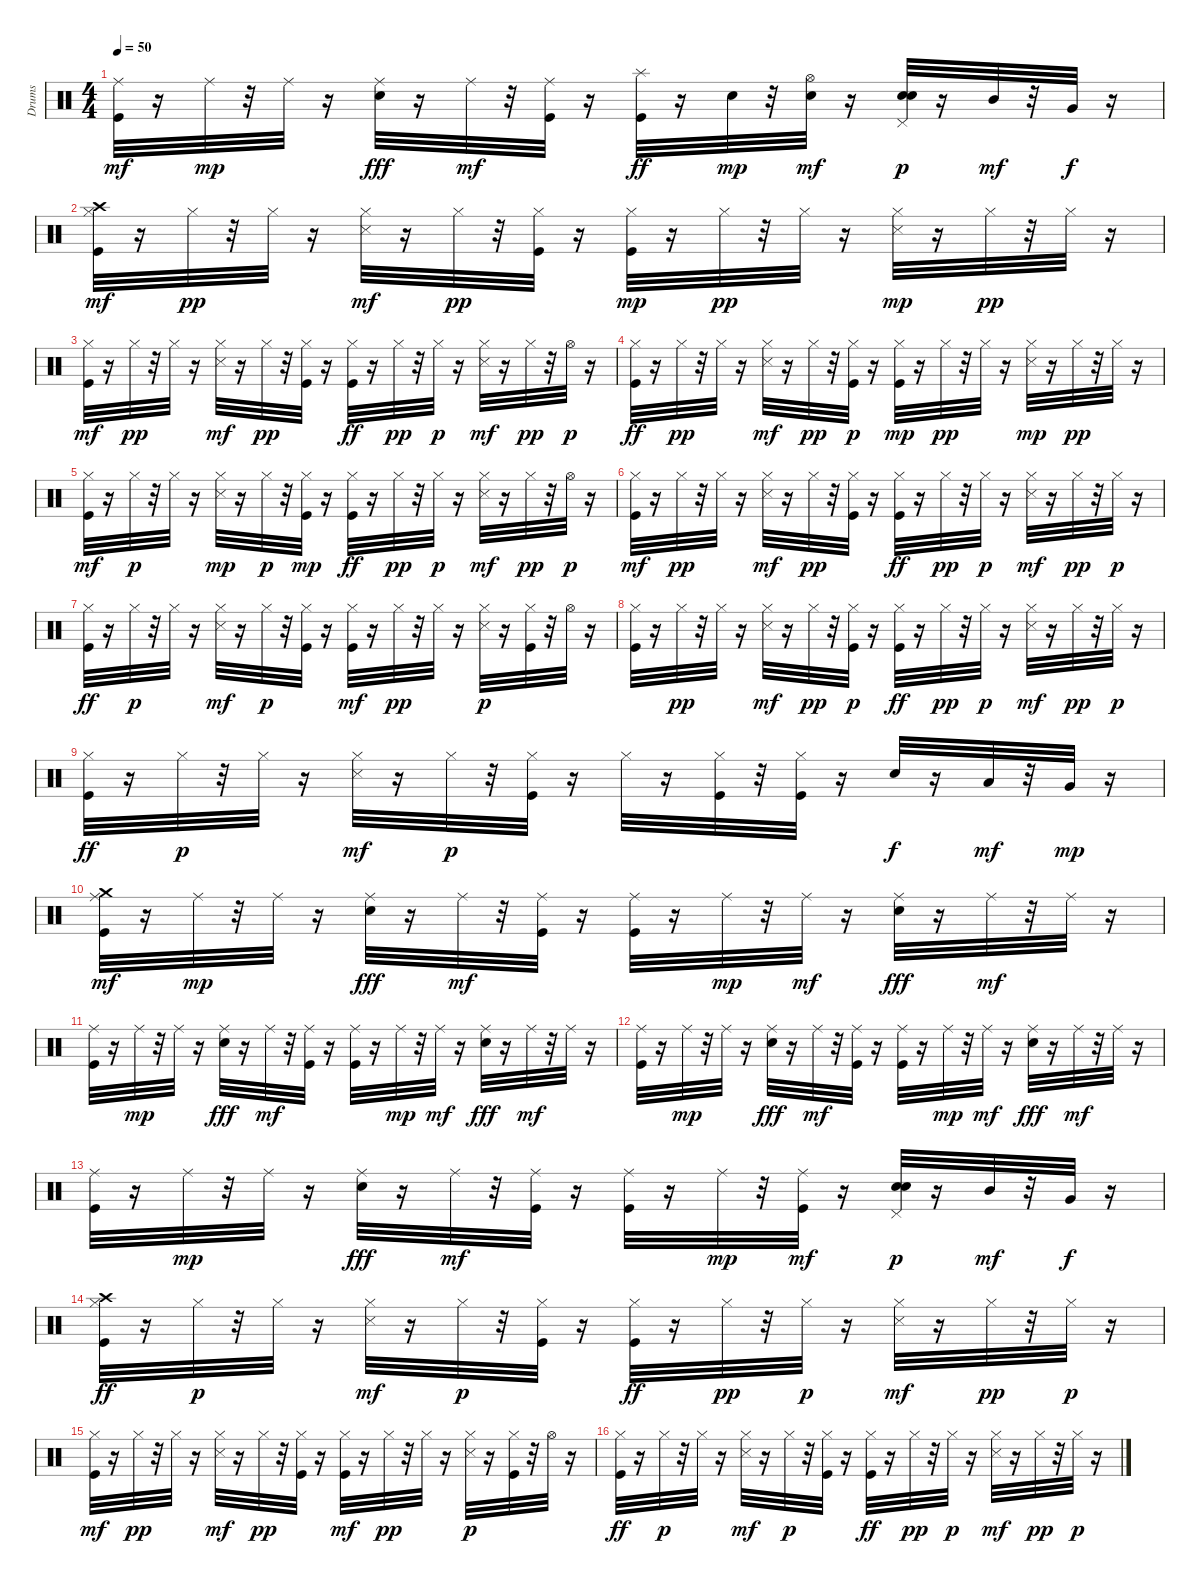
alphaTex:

\track ("Drums" "Drums") {instrument percussion}
\staff {score}
\articulation defaults
\ts (4 4)
\tempo 50
\clef neutral
\ks c
("Kick (hit)" "Ride (middle)").32{dy mf} r.16 "Ride (middle)".32{dy mp} r.32 "Ride (middle)".32 r.16 ("Snare (hit) 2" "Ride (middle)").32{dy fff} r.16 "Ride (middle)".32{dy mf} r.32 ("Kick (hit)" "Ride (middle)").32 r.16 ("Kick (hit)" "Splash (hit)").32{dy ff} r.16 "Snare (hit) 2".32{dy mp} r.32 ("Snare (hit) 2" "Hi-Hat (open)").32{dy mf} r.16 ("Snare (hit) 2" "Snare (hit) 2" "Pedal Hi-Hat (hit)").32{dy p} r.16 "Mid Tom (hit)".32{dy mf} r.32 "Very Low Tom (hit)".32{dy f} r.16 |
("Crash high (hit)" "Kick (hit)" "Hi-Hat (closed)").32{dy mf} r.16 "Hi-Hat (closed)".32{dy pp} r.32 "Hi-Hat (closed)".32 r.16 ("Snare (side stick) 3" "Hi-Hat (closed)").32{dy mf} r.16 "Hi-Hat (closed)".32{dy pp} r.32 ("Kick (hit)" "Hi-Hat (closed)").32 r.16 ("Kick (hit)" "Hi-Hat (closed)").32{dy mp} r.16 "Hi-Hat (closed)".32{dy pp} r.32 "Hi-Hat (closed)".32 r.16 ("Snare (side stick) 3" "Hi-Hat (closed)").32{dy mp} r.16 "Hi-Hat (closed)".32{dy pp} r.32 "Hi-Hat (closed)".32 r.16 |
("Kick (hit)" "Hi-Hat (closed)").32{dy mf} r.16 "Hi-Hat (closed)".32{dy pp} r.32 "Hi-Hat (closed)".32 r.16 ("Snare (side stick) 3" "Hi-Hat (closed)").32{dy mf} r.16 "Hi-Hat (closed)".32{dy pp} r.32 ("Kick (hit)" "Hi-Hat (closed)").32 r.16 ("Kick (hit)" "Hi-Hat (closed)").32{dy ff} r.16 "Hi-Hat (closed)".32{dy pp} r.32 "Hi-Hat (closed)".32{dy p} r.16 ("Snare (side stick) 3" "Hi-Hat (closed)").32{dy mf} r.16 "Hi-Hat (closed)".32{dy pp} r.32 "Hi-Hat (open)".32{dy p} r.16 |
("Kick (hit)" "Hi-Hat (closed)").32{dy ff} r.16 "Hi-Hat (closed)".32{dy pp} r.32 "Hi-Hat (closed)".32 r.16 ("Snare (side stick) 3" "Hi-Hat (closed)").32{dy mf} r.16 "Hi-Hat (closed)".32{dy pp} r.32 ("Kick (hit)" "Hi-Hat (closed)").32{dy p} r.16 ("Kick (hit)" "Hi-Hat (closed)").32{dy mp} r.16 "Hi-Hat (closed)".32{dy pp} r.32 "Hi-Hat (closed)".32 r.16 ("Snare (side stick) 3" "Hi-Hat (closed)").32{dy mp} r.16 "Hi-Hat (closed)".32{dy pp} r.32 "Hi-Hat (closed)".32 r.16 |
("Kick (hit)" "Hi-Hat (closed)").32{dy mf} r.16 "Hi-Hat (closed)".32{dy p} r.32 "Hi-Hat (closed)".32 r.16 ("Snare (side stick) 3" "Hi-Hat (closed)").32{dy mp} r.16 "Hi-Hat (closed)".32{dy p} r.32 ("Kick (hit)" "Hi-Hat (closed)").32{dy mp} r.16 ("Kick (hit)" "Hi-Hat (closed)").32{dy ff} r.16 "Hi-Hat (closed)".32{dy pp} r.32 "Hi-Hat (closed)".32{dy p} r.16 ("Snare (side stick) 3" "Hi-Hat (closed)").32{dy mf} r.16 "Hi-Hat (closed)".32{dy pp} r.32 "Hi-Hat (open)".32{dy p} r.16 |
("Kick (hit)" "Hi-Hat (closed)").32{dy mf} r.16 "Hi-Hat (closed)".32{dy pp} r.32 "Hi-Hat (closed)".32 r.16 ("Snare (side stick) 3" "Hi-Hat (closed)").32{dy mf} r.16 "Hi-Hat (closed)".32{dy pp} r.32 ("Kick (hit)" "Hi-Hat (closed)").32 r.16 ("Kick (hit)" "Hi-Hat (closed)").32{dy ff} r.16 "Hi-Hat (closed)".32{dy pp} r.32 "Hi-Hat (closed)".32{dy p} r.16 ("Snare (side stick) 3" "Hi-Hat (closed)").32{dy mf} r.16 "Hi-Hat (closed)".32{dy pp} r.32 "Hi-Hat (closed)".32{dy p} r.16 |
("Kick (hit)" "Hi-Hat (closed)").32{dy ff} r.16 "Hi-Hat (closed)".32{dy p} r.32 "Hi-Hat (closed)".32 r.16 ("Snare (side stick) 3" "Hi-Hat (closed)").32{dy mf} r.16 "Hi-Hat (closed)".32{dy p} r.32 ("Kick (hit)" "Hi-Hat (closed)").32 r.16 ("Kick (hit)" "Hi-Hat (closed)").32{dy mf} r.16 "Hi-Hat (closed)".32{dy pp} r.32 "Hi-Hat (closed)".32 r.16 ("Snare (side stick) 3" "Hi-Hat (closed)").32{dy p} r.16 ("Kick (hit)" "Hi-Hat (closed)").32 r.32 "Hi-Hat (open)".32 r.16 |
("Kick (hit)" "Hi-Hat (closed)").32 r.16 "Hi-Hat (closed)".32{dy pp} r.32 "Hi-Hat (closed)".32 r.16 ("Snare (side stick) 3" "Hi-Hat (closed)").32{dy mf} r.16 "Hi-Hat (closed)".32{dy pp} r.32 ("Kick (hit)" "Hi-Hat (closed)").32{dy p} r.16 ("Kick (hit)" "Hi-Hat (closed)").32{dy ff} r.16 "Hi-Hat (closed)".32{dy pp} r.32 "Hi-Hat (closed)".32{dy p} r.16 ("Snare (side stick) 3" "Hi-Hat (closed)").32{dy mf} r.16 "Hi-Hat (closed)".32{dy pp} r.32 "Hi-Hat (closed)".32{dy p} r.16 |
("Kick (hit)" "Hi-Hat (closed)").32{dy ff} r.16 "Hi-Hat (closed)".32{dy p} r.32 "Hi-Hat (closed)".32 r.16 ("Snare (side stick) 3" "Hi-Hat (closed)").32{dy mf} r.16 "Hi-Hat (closed)".32{dy p} r.32 ("Kick (hit)" "Hi-Hat (closed)").32 r.16 "Hi-Hat (closed)".32 r.16 ("Kick (hit)" "Hi-Hat (closed)").32 r.32 ("Kick (hit)" "Hi-Hat (closed)").32 r.16 "Snare (hit) 2".32{dy f} r.16 "Low Tom (hit)".32{dy mf} r.32 "Very Low Tom (hit)".32{dy mp} r.16 |
("Crash medium (hit)" "Kick (hit)" "Ride (middle)").32{dy mf} r.16 "Ride (middle)".32{dy mp} r.32 "Ride (middle)".32 r.16 ("Snare (hit) 2" "Ride (middle)").32{dy fff} r.16 "Ride (middle)".32{dy mf} r.32 ("Kick (hit)" "Ride (middle)").32 r.16 ("Kick (hit)" "Ride (middle)").32 r.16 "Ride (middle)".32{dy mp} r.32 "Ride (middle)".32{dy mf} r.16 ("Snare (hit) 2" "Ride (middle)").32{dy fff} r.16 "Ride (middle)".32{dy mf} r.32 "Ride (middle)".32 r.16 |
("Kick (hit)" "Ride (middle)").32 r.16 "Ride (middle)".32{dy mp} r.32 "Ride (middle)".32 r.16 ("Snare (hit) 2" "Ride (middle)").32{dy fff} r.16 "Ride (middle)".32{dy mf} r.32 ("Kick (hit)" "Ride (middle)").32 r.16 ("Kick (hit)" "Ride (middle)").32 r.16 "Ride (middle)".32{dy mp} r.32 "Ride (middle)".32{dy mf} r.16 ("Snare (hit) 2" "Ride (middle)").32{dy fff} r.16 "Ride (middle)".32{dy mf} r.32 "Ride (middle)".32 r.16 |
("Kick (hit)" "Ride (middle)").32 r.16 "Ride (middle)".32{dy mp} r.32 "Ride (middle)".32 r.16 ("Snare (hit) 2" "Ride (middle)").32{dy fff} r.16 "Ride (middle)".32{dy mf} r.32 ("Kick (hit)" "Ride (middle)").32 r.16 ("Kick (hit)" "Ride (middle)").32 r.16 "Ride (middle)".32{dy mp} r.32 "Ride (middle)".32{dy mf} r.16 ("Snare (hit) 2" "Ride (middle)").32{dy fff} r.16 "Ride (middle)".32{dy mf} r.32 "Ride (middle)".32 r.16 |
("Kick (hit)" "Ride (middle)").32 r.16 "Ride (middle)".32{dy mp} r.32 "Ride (middle)".32 r.16 ("Snare (hit) 2" "Ride (middle)").32{dy fff} r.16 "Ride (middle)".32{dy mf} r.32 ("Kick (hit)" "Ride (middle)").32 r.16 ("Kick (hit)" "Ride (middle)").32 r.16 "Ride (middle)".32{dy mp} r.32 ("Kick (hit)" "Ride (middle)").32{dy mf} r.16 ("Snare (hit) 2" "Snare (hit) 2" "Pedal Hi-Hat (hit)").32{dy p} r.16 "Mid Tom (hit)".32{dy mf} r.32 "Very Low Tom (hit)".32{dy f} r.16 |
("Crash high (hit)" "Kick (hit)" "Hi-Hat (closed)").32{dy ff} r.16 "Hi-Hat (closed)".32{dy p} r.32 "Hi-Hat (closed)".32 r.16 ("Snare (side stick) 3" "Hi-Hat (closed)").32{dy mf} r.16 "Hi-Hat (closed)".32{dy p} r.32 ("Kick (hit)" "Hi-Hat (closed)").32 r.16 ("Kick (hit)" "Hi-Hat (closed)").32{dy ff} r.16 "Hi-Hat (closed)".32{dy pp} r.32 "Hi-Hat (closed)".32{dy p} r.16 ("Snare (side stick) 3" "Hi-Hat (closed)").32{dy mf} r.16 "Hi-Hat (closed)".32{dy pp} r.32 "Hi-Hat (closed)".32{dy p} r.16 |
("Kick (hit)" "Hi-Hat (closed)").32{dy mf} r.16 "Hi-Hat (closed)".32{dy pp} r.32 "Hi-Hat (closed)".32 r.16 ("Snare (side stick) 3" "Hi-Hat (closed)").32{dy mf} r.16 "Hi-Hat (closed)".32{dy pp} r.32 ("Kick (hit)" "Hi-Hat (closed)").32 r.16 ("Kick (hit)" "Hi-Hat (closed)").32{dy mf} r.16 "Hi-Hat (closed)".32{dy pp} r.32 "Hi-Hat (closed)".32 r.16 ("Snare (side stick) 3" "Hi-Hat (closed)").32{dy p} r.16 ("Kick (hit)" "Hi-Hat (closed)").32 r.32 "Hi-Hat (open)".32 r.16 |
("Kick (hit)" "Hi-Hat (closed)").32{dy ff} r.16 "Hi-Hat (closed)".32{dy p} r.32 "Hi-Hat (closed)".32 r.16 ("Snare (side stick) 3" "Hi-Hat (closed)").32{dy mf} r.16 "Hi-Hat (closed)".32{dy p} r.32 ("Kick (hit)" "Hi-Hat (closed)").32 r.16 ("Kick (hit)" "Hi-Hat (closed)").32{dy ff} r.16 "Hi-Hat (closed)".32{dy pp} r.32 "Hi-Hat (closed)".32{dy p} r.16 ("Snare (side stick) 3" "Hi-Hat (closed)").32{dy mf} r.16 "Hi-Hat (closed)".32{dy pp} r.32 "Hi-Hat (closed)".32{dy p} r.16
